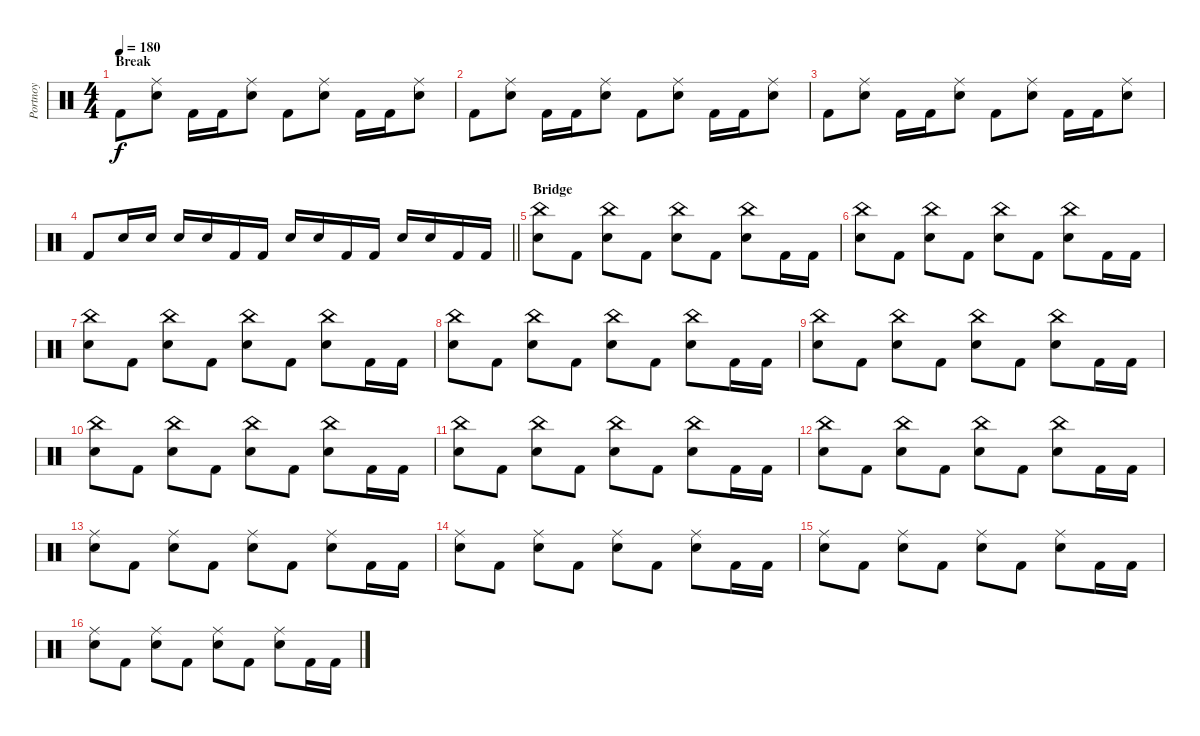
\track ("Portnoy" "Portnoy") {instrument percussion}
\staff {score}
\articulation defaults
\ts (4 4)
\section ("" "Break")
\tempo 180
\clef neutral
\ks c "Kick (hit) 2".8{dy f}
("Ride (middle)" "Electric Snare (hit)").8 "Kick (hit) 2".16 "Kick (hit) 2".16 ("Ride (middle)" "Electric Snare (hit)").8 "Kick (hit) 2".8 ("Ride (middle)" "Electric Snare (hit)").8 "Kick (hit) 2".16 "Kick (hit) 2".16 ("Ride (middle)" "Electric Snare (hit)").8 |
"Kick (hit) 2".8 ("Ride (middle)" "Electric Snare (hit)").8 "Kick (hit) 2".16 "Kick (hit) 2".16 ("Ride (middle)" "Electric Snare (hit)").8 "Kick (hit) 2".8 ("Ride (middle)" "Electric Snare (hit)").8 "Kick (hit) 2".16 "Kick (hit) 2".16 ("Ride (middle)" "Electric Snare (hit)").8 |
"Kick (hit) 2".8 ("Ride (middle)" "Electric Snare (hit)").8 "Kick (hit) 2".16 "Kick (hit) 2".16 ("Ride (middle)" "Electric Snare (hit)").8 "Kick (hit) 2".8 ("Ride (middle)" "Electric Snare (hit)").8 "Kick (hit) 2".16 "Kick (hit) 2".16 ("Ride (middle)" "Electric Snare (hit)").8 |
\barLineRight lightlight "Kick (hit) 2".8 "Electric Snare (hit)".16 "Electric Snare (hit)".16 "Electric Snare (hit)".16 "Electric Snare (hit)".16 "Kick (hit) 2".16 "Kick (hit) 2".16 "Electric Snare (hit)".16 "Electric Snare (hit)".16 "Kick (hit) 2".16 "Kick (hit) 2".16 "Electric Snare (hit)".16 "Electric Snare (hit)".16 "Kick (hit) 2".16 "Kick (hit) 2".16
|
\section ("" "Bridge")
("China (hit)" "Electric Snare (hit)").8 "Kick (hit) 2".8 ("China (hit)" "Electric Snare (hit)").8 "Kick (hit) 2".8 ("China (hit)" "Electric Snare (hit)").8 "Kick (hit) 2".8 ("China (hit)" "Electric Snare (hit)").8 "Kick (hit) 2".16 "Kick (hit) 2".16 |
("China (hit)" "Electric Snare (hit)").8 "Kick (hit) 2".8 ("China (hit)" "Electric Snare (hit)").8 "Kick (hit) 2".8 ("China (hit)" "Electric Snare (hit)").8 "Kick (hit) 2".8 ("China (hit)" "Electric Snare (hit)").8 "Kick (hit) 2".16 "Kick (hit) 2".16 |
("China (hit)" "Electric Snare (hit)").8 "Kick (hit) 2".8 ("China (hit)" "Electric Snare (hit)").8 "Kick (hit) 2".8 ("China (hit)" "Electric Snare (hit)").8 "Kick (hit) 2".8 ("China (hit)" "Electric Snare (hit)").8 "Kick (hit) 2".16 "Kick (hit) 2".16 |
("China (hit)" "Electric Snare (hit)").8 "Kick (hit) 2".8 ("China (hit)" "Electric Snare (hit)").8 "Kick (hit) 2".8 ("China (hit)" "Electric Snare (hit)").8 "Kick (hit) 2".8 ("China (hit)" "Electric Snare (hit)").8 "Kick (hit) 2".16 "Kick (hit) 2".16 |
("China (hit)" "Electric Snare (hit)").8 "Kick (hit) 2".8 ("China (hit)" "Electric Snare (hit)").8 "Kick (hit) 2".8 ("China (hit)" "Electric Snare (hit)").8 "Kick (hit) 2".8 ("China (hit)" "Electric Snare (hit)").8 "Kick (hit) 2".16 "Kick (hit) 2".16 |
("China (hit)" "Electric Snare (hit)").8 "Kick (hit) 2".8 ("China (hit)" "Electric Snare (hit)").8 "Kick (hit) 2".8 ("China (hit)" "Electric Snare (hit)").8 "Kick (hit) 2".8 ("China (hit)" "Electric Snare (hit)").8 "Kick (hit) 2".16 "Kick (hit) 2".16 |
("China (hit)" "Electric Snare (hit)").8 "Kick (hit) 2".8 ("China (hit)" "Electric Snare (hit)").8 "Kick (hit) 2".8 ("China (hit)" "Electric Snare (hit)").8 "Kick (hit) 2".8 ("China (hit)" "Electric Snare (hit)").8 "Kick (hit) 2".16 "Kick (hit) 2".16 |
("China (hit)" "Electric Snare (hit)").8 "Kick (hit) 2".8 ("China (hit)" "Electric Snare (hit)").8 "Kick (hit) 2".8 ("China (hit)" "Electric Snare (hit)").8 "Kick (hit) 2".8 ("China (hit)" "Electric Snare (hit)").8 "Kick (hit) 2".16 "Kick (hit) 2".16 |
("Ride (middle)" "Electric Snare (hit)").8 "Kick (hit) 2".8 ("Ride (middle)" "Electric Snare (hit)").8 "Kick (hit) 2".8 ("Ride (middle)" "Electric Snare (hit)").8 "Kick (hit) 2".8 ("Ride (middle)" "Electric Snare (hit)").8 "Kick (hit) 2".16 "Kick (hit) 2".16 |
("Ride (middle)" "Electric Snare (hit)").8 "Kick (hit) 2".8 ("Ride (middle)" "Electric Snare (hit)").8 "Kick (hit) 2".8 ("Ride (middle)" "Electric Snare (hit)").8 "Kick (hit) 2".8 ("Ride (middle)" "Electric Snare (hit)").8 "Kick (hit) 2".16 "Kick (hit) 2".16 |
("Ride (middle)" "Electric Snare (hit)").8 "Kick (hit) 2".8 ("Ride (middle)" "Electric Snare (hit)").8 "Kick (hit) 2".8 ("Ride (middle)" "Electric Snare (hit)").8 "Kick (hit) 2".8 ("Ride (middle)" "Electric Snare (hit)").8 "Kick (hit) 2".16 "Kick (hit) 2".16 |
("Ride (middle)" "Electric Snare (hit)").8 "Kick (hit) 2".8 ("Ride (middle)" "Electric Snare (hit)").8 "Kick (hit) 2".8 ("Ride (middle)" "Electric Snare (hit)").8 "Kick (hit) 2".8 ("Ride (middle)" "Electric Snare (hit)").8 "Kick (hit) 2".16 "Kick (hit) 2".16
